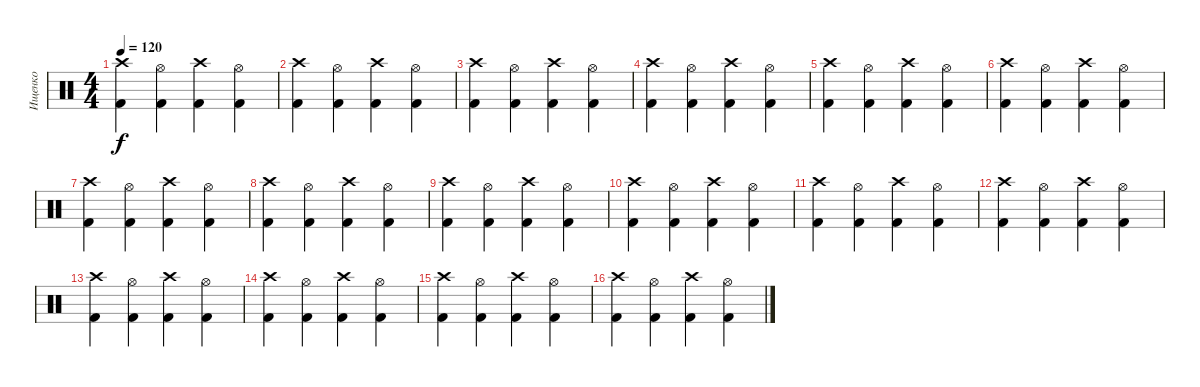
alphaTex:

\track ("Ищенко" "Ищенко") {instrument percussion}
\staff {score}
\articulation defaults
\ts (4 4)
\tempo 120
\clef neutral
\ks c
("Kick (hit) 2" "Crash high (hit)").4{dy f} ("Kick (hit) 2" "Hi-Hat (open)").4 ("Kick (hit) 2" "Crash high (hit)").4 ("Kick (hit) 2" "Hi-Hat (open)").4 |
("Kick (hit) 2" "Crash high (hit)").4 ("Kick (hit) 2" "Hi-Hat (open)").4 ("Kick (hit) 2" "Crash high (hit)").4 ("Kick (hit) 2" "Hi-Hat (open)").4 |
("Kick (hit) 2" "Crash high (hit)").4 ("Kick (hit) 2" "Hi-Hat (open)").4 ("Kick (hit) 2" "Crash high (hit)").4 ("Kick (hit) 2" "Hi-Hat (open)").4 |
("Kick (hit) 2" "Crash high (hit)").4 ("Kick (hit) 2" "Hi-Hat (open)").4 ("Kick (hit) 2" "Crash high (hit)").4 ("Kick (hit) 2" "Hi-Hat (open)").4 |
("Kick (hit) 2" "Crash high (hit)").4 ("Kick (hit) 2" "Hi-Hat (open)").4 ("Kick (hit) 2" "Crash high (hit)").4 ("Kick (hit) 2" "Hi-Hat (open)").4 |
("Kick (hit) 2" "Crash high (hit)").4 ("Kick (hit) 2" "Hi-Hat (open)").4 ("Kick (hit) 2" "Crash high (hit)").4 ("Kick (hit) 2" "Hi-Hat (open)").4 |
("Kick (hit) 2" "Crash high (hit)").4 ("Kick (hit) 2" "Hi-Hat (open)").4 ("Kick (hit) 2" "Crash high (hit)").4 ("Kick (hit) 2" "Hi-Hat (open)").4 |
("Kick (hit) 2" "Crash high (hit)").4 ("Kick (hit) 2" "Hi-Hat (open)").4 ("Kick (hit) 2" "Crash high (hit)").4 ("Kick (hit) 2" "Hi-Hat (open)").4 |
("Kick (hit) 2" "Crash high (hit)").4 ("Kick (hit) 2" "Hi-Hat (open)").4 ("Kick (hit) 2" "Crash high (hit)").4 ("Kick (hit) 2" "Hi-Hat (open)").4 |
("Kick (hit) 2" "Crash high (hit)").4 ("Kick (hit) 2" "Hi-Hat (open)").4 ("Kick (hit) 2" "Crash high (hit)").4 ("Kick (hit) 2" "Hi-Hat (open)").4 |
("Kick (hit) 2" "Crash high (hit)").4 ("Kick (hit) 2" "Hi-Hat (open)").4 ("Kick (hit) 2" "Crash high (hit)").4 ("Kick (hit) 2" "Hi-Hat (open)").4 |
("Kick (hit) 2" "Crash high (hit)").4 ("Kick (hit) 2" "Hi-Hat (open)").4 ("Kick (hit) 2" "Crash high (hit)").4 ("Kick (hit) 2" "Hi-Hat (open)").4 |
("Kick (hit) 2" "Crash high (hit)").4 ("Kick (hit) 2" "Hi-Hat (open)").4 ("Kick (hit) 2" "Crash high (hit)").4 ("Kick (hit) 2" "Hi-Hat (open)").4 |
("Kick (hit) 2" "Crash high (hit)").4 ("Kick (hit) 2" "Hi-Hat (open)").4 ("Kick (hit) 2" "Crash high (hit)").4 ("Kick (hit) 2" "Hi-Hat (open)").4 |
("Kick (hit) 2" "Crash high (hit)").4 ("Kick (hit) 2" "Hi-Hat (open)").4 ("Kick (hit) 2" "Crash high (hit)").4 ("Kick (hit) 2" "Hi-Hat (open)").4 |
("Kick (hit) 2" "Crash high (hit)").4 ("Kick (hit) 2" "Hi-Hat (open)").4 ("Kick (hit) 2" "Crash high (hit)").4 ("Kick (hit) 2" "Hi-Hat (open)").4
